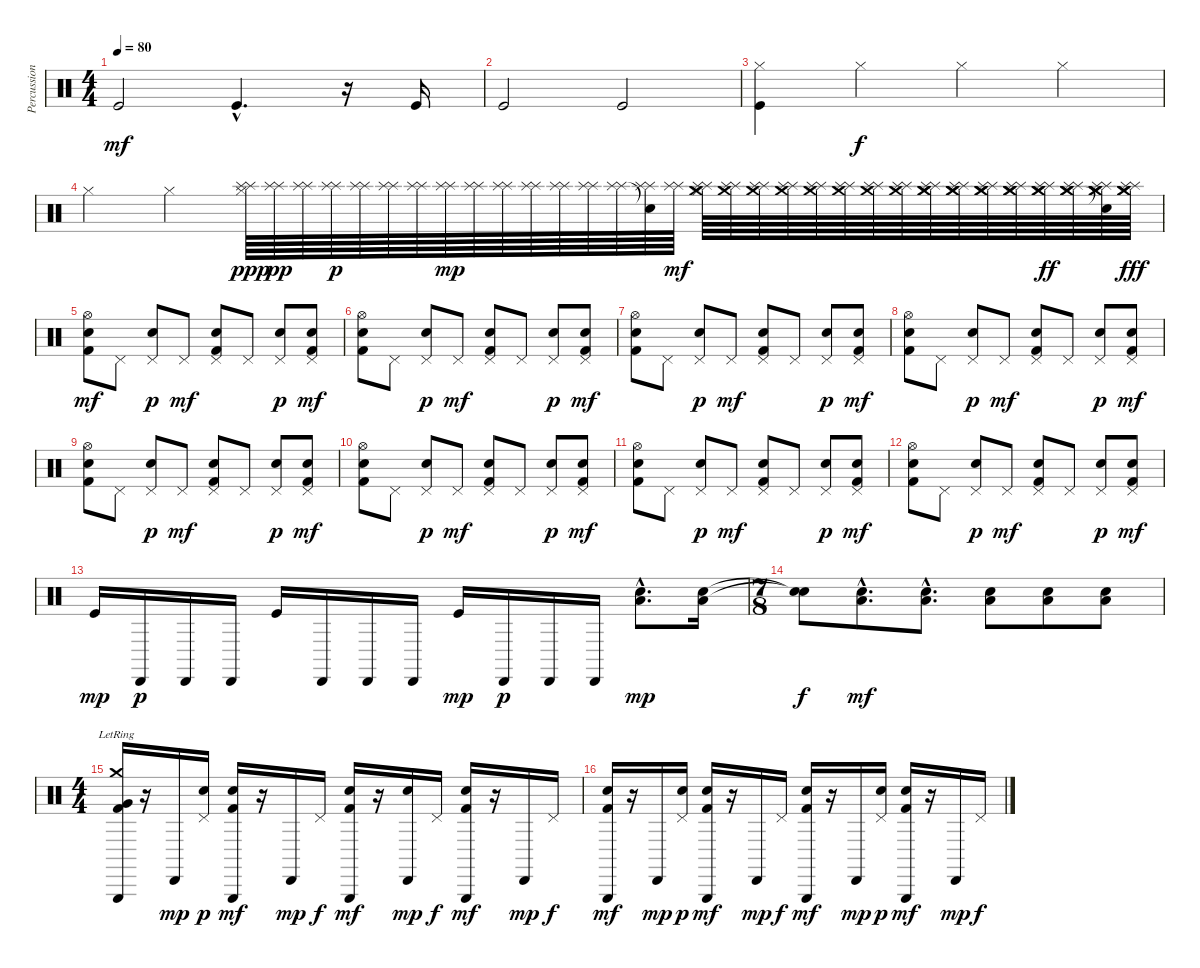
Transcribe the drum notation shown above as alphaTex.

\track ("Percussions" "Percussion") {instrument percussion}
\staff {score}
\articulation defaults
\ts (4 4)
\tempo 80
\clef neutral
\ks c "Kick (hit)".2{dy mf volume 13} "Kick (hit)"{hac}.4{d}
r.16 "Kick (hit)".16 |
"Kick (hit)".2 "Kick (hit)".2 |
("Kick (hit)" "Hi-Hat (closed)").4 "Hi-Hat (closed)".4{dy f} "Hi-Hat (closed)".4 "Hi-Hat (closed)".4 |
"Hi-Hat (closed)".4 "Hi-Hat (closed)".4 ("Hi-Hat (closed)" "Splash (hit)" "Splash (hit)").64{dy ppp} ("Splash (hit)" "Splash (hit)").64{dy pp} ("Splash (hit)" "Splash (hit)").64 ("Splash (hit)" "Splash (hit)").64{dy p} ("Splash (hit)" "Splash (hit)").64 ("Splash (hit)" "Splash (hit)").64 ("Splash (hit)" "Splash (hit)").64 ("Splash (hit)" "Splash (hit)").64{dy mp} ("Splash (hit)" "Splash (hit)").64 ("Splash (hit)" "Splash (hit)").64 ("Splash (hit)" "Splash (hit)").64 ("Splash (hit)" "Splash (hit)").64 ("Splash (hit)" "Splash (hit)").64 ("Splash (hit)" "Splash (hit)").64 ("Snare (hit)"{t} "Splash (hit)" "Splash (hit)").64 ("Splash (hit)" "Splash (hit)").64{dy mf} ("Hi-Hat (closed)" "Crash medium (hit)" "Splash (hit)" "Splash (hit)").64 ("Crash medium (hit)" "Splash (hit)" "Splash (hit)").64 ("Crash medium (hit)" "Splash (hit)" "Splash (hit)").64 ("Crash medium (hit)" "Splash (hit)" "Splash (hit)").64 ("Crash medium (hit)" "Splash (hit)" "Splash (hit)").64 ("Crash medium (hit)" "Splash (hit)" "Splash (hit)").64 ("Crash medium (hit)" "Splash (hit)" "Splash (hit)").64 ("Crash medium (hit)" "Splash (hit)" "Splash (hit)").64 ("Crash medium (hit)" "Crash medium (hit)" "Splash (hit)" "Splash (hit)").64 ("Crash medium (hit)" "Crash medium (hit)" "Splash (hit)" "Splash (hit)").64 ("Crash medium (hit)" "Crash medium (hit)" "Splash (hit)" "Splash (hit)").64 ("Crash medium (hit)" "Crash medium (hit)" "Splash (hit)" "Splash (hit)").64 ("Crash medium (hit)" "Crash medium (hit)" "Splash (hit)" "Splash (hit)").64{dy ff} ("Crash medium (hit)" "Crash medium (hit)" "Splash (hit)" "Splash (hit)").64 ("Snare (hit)"{t} "Crash medium (hit)" "Crash medium (hit)" "Splash (hit)" "Splash (hit)").64 ("Crash medium (hit)" "Crash medium (hit)" "Splash (hit)" "Splash (hit)").64{dy fff} |
("Hi-Hat (open)" "Electric Snare (hit)" "Kick (hit) 2").8{dy mf} "Pedal Hi-Hat (hit)".8 ("Pedal Hi-Hat (hit)" "Snare (hit) 2").8{dy p} "Pedal Hi-Hat (hit)".8{dy mf} ("Pedal Hi-Hat (hit)" "Electric Snare (hit)" "Kick (hit) 2").8 "Pedal Hi-Hat (hit)".8 ("Pedal Hi-Hat (hit)" "Snare (hit) 2").8{dy p} ("Pedal Hi-Hat (hit)" "Electric Snare (hit)" "Kick (hit) 2").8{dy mf} |
("Hi-Hat (open)" "Electric Snare (hit)" "Kick (hit) 2").8 "Pedal Hi-Hat (hit)".8 ("Pedal Hi-Hat (hit)" "Snare (hit) 2").8{dy p} "Pedal Hi-Hat (hit)".8{dy mf} ("Pedal Hi-Hat (hit)" "Electric Snare (hit)" "Kick (hit) 2").8 "Pedal Hi-Hat (hit)".8 ("Pedal Hi-Hat (hit)" "Snare (hit) 2").8{dy p} ("Pedal Hi-Hat (hit)" "Electric Snare (hit)" "Kick (hit) 2").8{dy mf} |
("Hi-Hat (open)" "Electric Snare (hit)" "Kick (hit) 2").8 "Pedal Hi-Hat (hit)".8 ("Pedal Hi-Hat (hit)" "Snare (hit) 2").8{dy p} "Pedal Hi-Hat (hit)".8{dy mf} ("Pedal Hi-Hat (hit)" "Electric Snare (hit)" "Kick (hit) 2").8 "Pedal Hi-Hat (hit)".8 ("Pedal Hi-Hat (hit)" "Snare (hit) 2").8{dy p} ("Pedal Hi-Hat (hit)" "Electric Snare (hit)" "Kick (hit) 2").8{dy mf} |
("Hi-Hat (open)" "Electric Snare (hit)" "Kick (hit) 2").8 "Pedal Hi-Hat (hit)".8 ("Pedal Hi-Hat (hit)" "Snare (hit) 2").8{dy p} "Pedal Hi-Hat (hit)".8{dy mf} ("Pedal Hi-Hat (hit)" "Electric Snare (hit)" "Kick (hit) 2").8 "Pedal Hi-Hat (hit)".8 ("Pedal Hi-Hat (hit)" "Snare (hit) 2").8{dy p} ("Pedal Hi-Hat (hit)" "Electric Snare (hit)" "Kick (hit) 2").8{dy mf} |
("Hi-Hat (open)" "Electric Snare (hit)" "Kick (hit) 2").8 "Pedal Hi-Hat (hit)".8 ("Pedal Hi-Hat (hit)" "Snare (hit) 2").8{dy p} "Pedal Hi-Hat (hit)".8{dy mf} ("Pedal Hi-Hat (hit)" "Electric Snare (hit)" "Kick (hit) 2").8 "Pedal Hi-Hat (hit)".8 ("Pedal Hi-Hat (hit)" "Snare (hit) 2").8{dy p} ("Pedal Hi-Hat (hit)" "Electric Snare (hit)" "Kick (hit) 2").8{dy mf} |
("Hi-Hat (open)" "Electric Snare (hit)" "Kick (hit) 2").8 "Pedal Hi-Hat (hit)".8 ("Pedal Hi-Hat (hit)" "Snare (hit) 2").8{dy p} "Pedal Hi-Hat (hit)".8{dy mf} ("Pedal Hi-Hat (hit)" "Electric Snare (hit)" "Kick (hit) 2").8 "Pedal Hi-Hat (hit)".8 ("Pedal Hi-Hat (hit)" "Snare (hit) 2").8{dy p} ("Pedal Hi-Hat (hit)" "Electric Snare (hit)" "Kick (hit) 2").8{dy mf} |
("Hi-Hat (open)" "Electric Snare (hit)" "Kick (hit) 2").8 "Pedal Hi-Hat (hit)".8 ("Pedal Hi-Hat (hit)" "Snare (hit) 2").8{dy p} "Pedal Hi-Hat (hit)".8{dy mf} ("Pedal Hi-Hat (hit)" "Electric Snare (hit)" "Kick (hit) 2").8 "Pedal Hi-Hat (hit)".8 ("Pedal Hi-Hat (hit)" "Snare (hit) 2").8{dy p} ("Pedal Hi-Hat (hit)" "Electric Snare (hit)" "Kick (hit) 2").8{dy mf} |
("Hi-Hat (open)" "Electric Snare (hit)" "Kick (hit) 2").8 "Pedal Hi-Hat (hit)".8 ("Pedal Hi-Hat (hit)" "Snare (hit) 2").8{dy p} "Pedal Hi-Hat (hit)".8{dy mf} ("Pedal Hi-Hat (hit)" "Electric Snare (hit)" "Kick (hit) 2").8 "Pedal Hi-Hat (hit)".8 ("Pedal Hi-Hat (hit)" "Snare (hit) 2").8{dy p} ("Pedal Hi-Hat (hit)" "Electric Snare (hit)" "Kick (hit) 2").8{dy mf} |
"Kick (hit)".16{dy mp} "Cabasa (hit)".16{dy p} "Cabasa (hit)".16 "Cabasa (hit)".16 "Kick (hit)".16 "Cabasa (hit)".16 "Cabasa (hit)".16 "Cabasa (hit)".16 "Kick (hit)".16{dy mp} "Cabasa (hit)".16{dy p} "Cabasa (hit)".16 "Cabasa (hit)".16 ("Snare (hit) 2"{hac} "Low Floor Tom (hit)"{hac}).8{d dy mp} ("Snare (hit) 2" "Low Floor Tom (hit)").16 |
\ts (7 8)
("Snare (hit)"{t} "Snare (hit)"{t}).8{dy f} ("Snare (hit) 2"{hac} "Low Floor Tom (hit)"{hac}).8{d dy mf} ("Snare (hit) 2"{hac} "Low Floor Tom (hit)"{hac}).8{d} ("Snare (hit) 2" "Low Floor Tom (hit)").8 ("Snare (hit) 2" "Low Floor Tom (hit)").8 ("Snare (hit) 2" "Low Floor Tom (hit)").8 |
\ts (4 4)
("Very Low Tom (hit)" "Crash medium (hit)"{lr} "Triangle (hit)" "Kick (hit) 2").16 r.16 "Cabasa (hit)".16{dy mp} ("Snare (hit) 2" "Pedal Hi-Hat (hit)").16{dy p} ("Snare (hit) 2" "Triangle (hit)" "Kick (hit) 2").16{dy mf} r.16 "Cabasa (hit)".16{dy mp} "Pedal Hi-Hat (hit)".16{dy f} ("Snare (hit) 2" "Triangle (hit)" "Kick (hit) 2").16{dy mf} r.16 ("Snare (hit) 2" "Cabasa (hit)").16{dy mp} "Pedal Hi-Hat (hit)".16{dy f} ("Snare (hit) 2" "Triangle (hit)" "Kick (hit) 2").16{dy mf} r.16 "Cabasa (hit)".16{dy mp} "Pedal Hi-Hat (hit)".16{dy f} |
("Snare (hit) 2" "Triangle (hit)" "Kick (hit) 2").16{dy mf} r.16 "Cabasa (hit)".16{dy mp} ("Snare (hit) 2" "Pedal Hi-Hat (hit)").16{dy p} ("Snare (hit) 2" "Triangle (hit)" "Kick (hit) 2").16{dy mf} r.16 "Cabasa (hit)".16{dy mp} "Pedal Hi-Hat (hit)".16{dy f} ("Snare (hit) 2" "Triangle (hit)" "Kick (hit) 2").16{dy mf} r.16 "Cabasa (hit)".16{dy mp} ("Snare (hit) 2" "Pedal Hi-Hat (hit)").16{dy p} ("Snare (hit) 2" "Triangle (hit)" "Kick (hit) 2").16{dy mf} r.16 "Cabasa (hit)".16{dy mp} "Pedal Hi-Hat (hit)".16{dy f}
